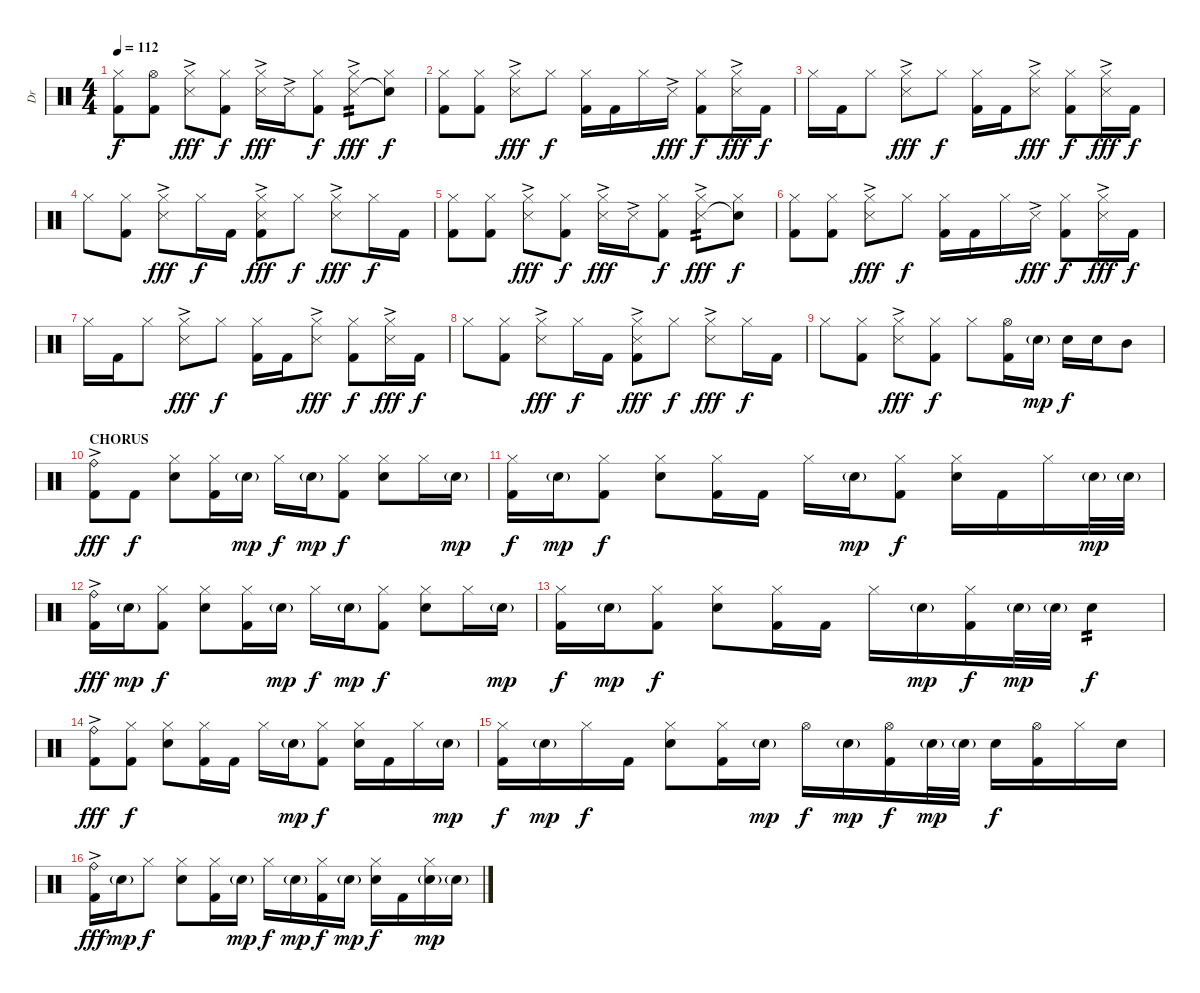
\track ("Dr" "Dr") {instrument percussion}
\staff {score}
\articulation defaults
\ts (4 4)
\tempo 112
\clef neutral
\ks c
("Hi-Hat (closed)" "Kick (hit) 2").8{dy f} ("Hi-Hat (open)" "Kick (hit) 2").8 ("Hi-Hat (closed)" "Snare (side stick) 3"{ac}).8{dy fff} ("Hi-Hat (closed)" "Kick (hit) 2").8{dy f} ("Hi-Hat (closed)" "Snare (side stick) 3"{ac}).16{dy fff} "Snare (side stick) 3"{ac}.16 ("Hi-Hat (closed)" "Kick (hit) 2").8{dy f} ("Hi-Hat (closed)" "Snare (side stick) 3"{ac}).8{tp 2 dy fff} ("Hi-Hat (closed)" "Snare (hit)"{t}).8{dy f} |
("Hi-Hat (closed)" "Kick (hit) 2").8 ("Hi-Hat (closed)" "Kick (hit) 2").8 ("Hi-Hat (closed)" "Snare (side stick) 3"{ac}).8{dy fff} "Hi-Hat (closed)".8{dy f} ("Hi-Hat (closed)" "Kick (hit) 2").16 "Kick (hit) 2".16 "Hi-Hat (closed)".16 "Snare (side stick) 3"{ac}.16{dy fff} ("Hi-Hat (closed)" "Kick (hit) 2").8{dy f} ("Hi-Hat (closed)" "Snare (side stick) 3"{ac}).16{dy fff} "Kick (hit) 2".16{dy f} |
"Hi-Hat (closed)".16 "Kick (hit) 2".16 "Hi-Hat (closed)".8 ("Hi-Hat (closed)" "Snare (side stick) 3"{ac}).8{dy fff} "Hi-Hat (closed)".8{dy f} ("Hi-Hat (closed)" "Kick (hit) 2").16 "Kick (hit) 2".16 ("Hi-Hat (closed)" "Snare (side stick) 3"{ac}).8{dy fff} ("Hi-Hat (closed)" "Kick (hit) 2").8{dy f} ("Hi-Hat (closed)" "Snare (side stick) 3"{ac}).16{dy fff} "Kick (hit) 2".16{dy f} |
"Hi-Hat (closed)".8 ("Hi-Hat (closed)" "Kick (hit) 2").8 ("Hi-Hat (closed)" "Snare (side stick) 3"{ac}).8{dy fff} "Hi-Hat (closed)".16{dy f} "Kick (hit) 2".16 ("Hi-Hat (closed)" "Snare (side stick) 3"{ac} "Kick (hit) 2").8{dy fff} "Hi-Hat (closed)".8{dy f} ("Hi-Hat (closed)" "Snare (side stick) 3"{ac}).8{dy fff} "Hi-Hat (closed)".16{dy f} "Kick (hit) 2".16 |
("Hi-Hat (closed)" "Kick (hit) 2").8 ("Hi-Hat (closed)" "Kick (hit) 2").8 ("Hi-Hat (closed)" "Snare (side stick) 3"{ac}).8{dy fff} ("Hi-Hat (closed)" "Kick (hit) 2").8{dy f} ("Hi-Hat (closed)" "Snare (side stick) 3"{ac}).16{dy fff} "Snare (side stick) 3"{ac}.16 ("Hi-Hat (closed)" "Kick (hit) 2").8{dy f} ("Hi-Hat (closed)" "Snare (side stick) 3"{ac}).8{tp 2 dy fff} ("Hi-Hat (closed)" "Snare (hit)"{t}).8{dy f} |
("Hi-Hat (closed)" "Kick (hit) 2").8 ("Hi-Hat (closed)" "Kick (hit) 2").8 ("Hi-Hat (closed)" "Snare (side stick) 3"{ac}).8{dy fff} "Hi-Hat (closed)".8{dy f} ("Hi-Hat (closed)" "Kick (hit) 2").16 "Kick (hit) 2".16 "Hi-Hat (closed)".16 "Snare (side stick) 3"{ac}.16{dy fff} ("Hi-Hat (closed)" "Kick (hit) 2").8{dy f} ("Hi-Hat (closed)" "Snare (side stick) 3"{ac}).16{dy fff} "Kick (hit) 2".16{dy f} |
"Hi-Hat (closed)".16 "Kick (hit) 2".16 "Hi-Hat (closed)".8 ("Hi-Hat (closed)" "Snare (side stick) 3"{ac}).8{dy fff} "Hi-Hat (closed)".8{dy f} ("Hi-Hat (closed)" "Kick (hit) 2").16 "Kick (hit) 2".16 ("Hi-Hat (closed)" "Snare (side stick) 3"{ac}).8{dy fff} ("Hi-Hat (closed)" "Kick (hit) 2").8{dy f} ("Hi-Hat (closed)" "Snare (side stick) 3"{ac}).16{dy fff} "Kick (hit) 2".16{dy f} |
"Hi-Hat (closed)".8 ("Hi-Hat (closed)" "Kick (hit) 2").8 ("Hi-Hat (closed)" "Snare (side stick) 3"{ac}).8{dy fff} "Hi-Hat (closed)".16{dy f} "Kick (hit) 2".16 ("Hi-Hat (closed)" "Snare (side stick) 3"{ac} "Kick (hit) 2").8{dy fff} "Hi-Hat (closed)".8{dy f} ("Hi-Hat (closed)" "Snare (side stick) 3"{ac}).8{dy fff} "Hi-Hat (closed)".16{dy f} "Kick (hit) 2".16 |
"Hi-Hat (closed)".8 ("Hi-Hat (closed)" "Kick (hit) 2").8 ("Hi-Hat (closed)" "Snare (side stick) 3"{ac}).8{dy fff} ("Hi-Hat (closed)" "Kick (hit) 2").8{dy f} "Hi-Hat (closed)".8 ("Hi-Hat (open)" "Kick (hit) 2").16 "Electric Snare (hit)"{g}.16{dy mp} "Electric Snare (hit)".16{dy f} "Electric Snare (hit)".16 "Mid Tom (hit)".8 |
\section ("" "CHORUS")
("Ride (bell)"{ac} "Kick (hit) 2"{ac}).8{dy fff} "Kick (hit) 2".8{dy f} ("Hi-Hat (closed)" "Electric Snare (hit)").8 ("Hi-Hat (closed)" "Kick (hit) 2").16 "Electric Snare (hit)"{g}.16{dy mp} "Hi-Hat (closed)".16{dy f} "Electric Snare (hit)"{g}.16{dy mp} ("Hi-Hat (closed)" "Kick (hit) 2").8{dy f} ("Hi-Hat (closed)" "Electric Snare (hit)").8 "Hi-Hat (closed)".16 "Electric Snare (hit)"{g}.16{dy mp} |
("Hi-Hat (closed)" "Kick (hit) 2").16{dy f} "Electric Snare (hit)"{g}.16{dy mp} ("Hi-Hat (closed)" "Kick (hit) 2").8{dy f} ("Hi-Hat (closed)" "Electric Snare (hit)").8 ("Hi-Hat (closed)" "Kick (hit) 2").16 "Kick (hit) 2".16 "Hi-Hat (closed)".16 "Electric Snare (hit)"{g}.16{dy mp} ("Hi-Hat (closed)" "Kick (hit) 2").8{dy f} ("Hi-Hat (closed)" "Electric Snare (hit)").16 "Kick (hit) 2".16 "Hi-Hat (closed)".16 "Electric Snare (hit)"{g}.32{dy mp} "Electric Snare (hit)"{g}.32 |
("Ride (bell)"{ac} "Kick (hit) 2"{ac}).16{dy fff} "Electric Snare (hit)"{g}.16{dy mp} ("Hi-Hat (closed)" "Kick (hit) 2").8{dy f} ("Hi-Hat (closed)" "Electric Snare (hit)").8 ("Hi-Hat (closed)" "Kick (hit) 2").16 "Electric Snare (hit)"{g}.16{dy mp} "Hi-Hat (closed)".16{dy f} "Electric Snare (hit)"{g}.16{dy mp} ("Hi-Hat (closed)" "Kick (hit) 2").8{dy f} ("Hi-Hat (closed)" "Electric Snare (hit)").8 "Hi-Hat (closed)".16 "Electric Snare (hit)"{g}.16{dy mp} |
("Hi-Hat (closed)" "Kick (hit) 2").16{dy f} "Electric Snare (hit)"{g}.16{dy mp} ("Hi-Hat (closed)" "Kick (hit) 2").8{dy f} ("Hi-Hat (closed)" "Electric Snare (hit)").8 ("Hi-Hat (closed)" "Kick (hit) 2").16 "Kick (hit) 2".16 "Hi-Hat (closed)".16 "Electric Snare (hit)"{g}.16{dy mp} ("Hi-Hat (closed)" "Kick (hit) 2").16{dy f} "Electric Snare (hit)"{g}.32{dy mp} "Electric Snare (hit)"{g}.32 "Electric Snare (hit)".4{tp 2 dy f} |
("Ride (bell)"{ac} "Kick (hit) 2"{ac}).8{dy fff} ("Hi-Hat (closed)" "Kick (hit) 2").8{dy f} ("Hi-Hat (closed)" "Electric Snare (hit)").8 ("Hi-Hat (closed)" "Kick (hit) 2").16 "Kick (hit) 2".16 "Hi-Hat (closed)".16 "Electric Snare (hit)"{g}.16{dy mp} ("Hi-Hat (closed)" "Kick (hit) 2").8{dy f} ("Hi-Hat (closed)" "Electric Snare (hit)").16 "Kick (hit) 2".16 "Hi-Hat (closed)".16 "Electric Snare (hit)"{g}.16{dy mp} |
("Hi-Hat (closed)" "Kick (hit) 2").16{dy f} "Electric Snare (hit)"{g}.16{dy mp} "Hi-Hat (closed)".16{dy f} "Kick (hit) 2".16 ("Hi-Hat (closed)" "Electric Snare (hit)").8 ("Hi-Hat (closed)" "Kick (hit) 2").16 "Electric Snare (hit)"{g}.16{dy mp} "Hi-Hat (open)".16{dy f} "Electric Snare (hit)"{g}.16{dy mp} ("Hi-Hat (open)" "Kick (hit) 2").16{dy f} "Electric Snare (hit)"{g}.32{dy mp} "Electric Snare (hit)"{g}.32 "Electric Snare (hit)".16{dy f} ("Hi-Hat (open)" "Kick (hit) 2").16 "Hi-Hat (closed)".16 "Electric Snare (hit)".16 |
("Ride (bell)"{ac} "Kick (hit) 2"{ac}).16{dy fff} "Electric Snare (hit)"{g}.16{dy mp} "Hi-Hat (closed)".8{dy f} ("Hi-Hat (closed)" "Electric Snare (hit)").8 ("Hi-Hat (closed)" "Kick (hit) 2").16 "Electric Snare (hit)"{g}.16{dy mp} "Hi-Hat (closed)".16{dy f} "Electric Snare (hit)"{g}.16{dy mp} ("Hi-Hat (closed)" "Kick (hit) 2").16{dy f} "Electric Snare (hit)"{g}.16{dy mp} ("Hi-Hat (closed)" "Electric Snare (hit)").16{dy f} "Kick (hit) 2".16 ("Hi-Hat (closed)" "Electric Snare (hit)"{g}).16{dy mp} "Electric Snare (hit)"{g}.16
